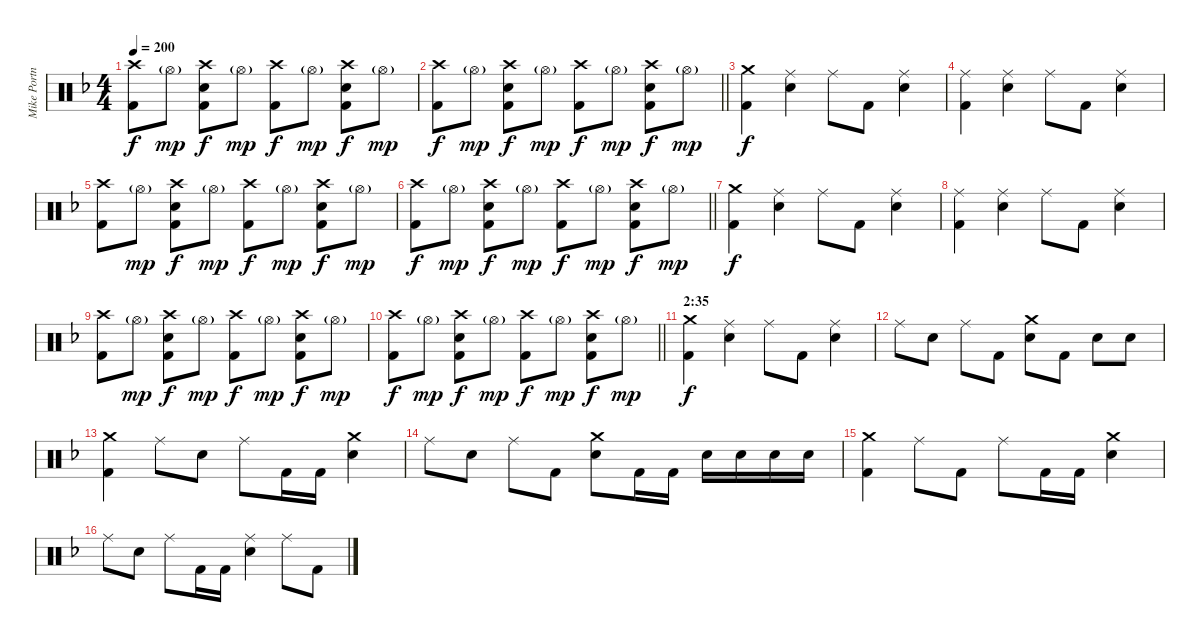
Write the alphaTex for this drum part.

\track ("Mike Portnoy (Drums)" "Mike Portn") {instrument percussion}
\staff {score}
\articulation defaults
\ts (4 4)
\tempo 200
\clef neutral
\ks f
("Crash high (hit)" "Kick (hit) 2").8{dy f} "Hi-Hat (open)"{g}.8{dy mp} ("Crash high (hit)" "Electric Snare (hit)" "Kick (hit) 2").8{dy f} "Hi-Hat (open)"{g}.8{dy mp} ("Crash high (hit)" "Kick (hit) 2").8{dy f} "Hi-Hat (open)"{g}.8{dy mp} ("Crash high (hit)" "Electric Snare (hit)" "Kick (hit) 2").8{dy f} "Hi-Hat (open)"{g}.8{dy mp} |
\barLineRight lightlight
("Crash high (hit)" "Kick (hit) 2").8{dy f} "Hi-Hat (open)"{g}.8{dy mp} ("Crash high (hit)" "Electric Snare (hit)" "Kick (hit) 2").8{dy f} "Hi-Hat (open)"{g}.8{dy mp} ("Crash high (hit)" "Kick (hit) 2").8{dy f} "Hi-Hat (open)"{g}.8{dy mp} ("Crash high (hit)" "Electric Snare (hit)" "Kick (hit) 2").8{dy f} "Hi-Hat (open)"{g}.8{dy mp} |
\section ("" "")
("Crash medium (hit)" "Kick (hit) 2").4{dy f} ("Ride (middle)" "Electric Snare (hit)").4 "Ride (middle)".8 "Kick (hit) 2".8 ("Ride (middle)" "Electric Snare (hit)").4 |
("Ride (middle)" "Kick (hit) 2").4 ("Ride (middle)" "Electric Snare (hit)").4 "Ride (middle)".8 "Kick (hit) 2".8 ("Ride (middle)" "Electric Snare (hit)").4 |
("Crash high (hit)" "Kick (hit) 2").8 "Hi-Hat (open)"{g}.8{dy mp} ("Crash high (hit)" "Electric Snare (hit)" "Kick (hit) 2").8{dy f} "Hi-Hat (open)"{g}.8{dy mp} ("Crash high (hit)" "Kick (hit) 2").8{dy f} "Hi-Hat (open)"{g}.8{dy mp} ("Crash high (hit)" "Electric Snare (hit)" "Kick (hit) 2").8{dy f} "Hi-Hat (open)"{g}.8{dy mp} |
\barLineRight lightlight
("Crash high (hit)" "Kick (hit) 2").8{dy f} "Hi-Hat (open)"{g}.8{dy mp} ("Crash high (hit)" "Electric Snare (hit)" "Kick (hit) 2").8{dy f} "Hi-Hat (open)"{g}.8{dy mp} ("Crash high (hit)" "Kick (hit) 2").8{dy f} "Hi-Hat (open)"{g}.8{dy mp} ("Crash high (hit)" "Electric Snare (hit)" "Kick (hit) 2").8{dy f} "Hi-Hat (open)"{g}.8{dy mp} |
("Crash medium (hit)" "Kick (hit) 2").4{dy f} ("Ride (middle)" "Electric Snare (hit)").4 "Ride (middle)".8 "Kick (hit) 2".8 ("Ride (middle)" "Electric Snare (hit)").4 |
("Ride (middle)" "Kick (hit) 2").4 ("Ride (middle)" "Electric Snare (hit)").4 "Ride (middle)".8 "Kick (hit) 2".8 ("Ride (middle)" "Electric Snare (hit)").4 |
("Crash high (hit)" "Kick (hit) 2").8 "Hi-Hat (open)"{g}.8{dy mp} ("Crash high (hit)" "Electric Snare (hit)" "Kick (hit) 2").8{dy f} "Hi-Hat (open)"{g}.8{dy mp} ("Crash high (hit)" "Kick (hit) 2").8{dy f} "Hi-Hat (open)"{g}.8{dy mp} ("Crash high (hit)" "Electric Snare (hit)" "Kick (hit) 2").8{dy f} "Hi-Hat (open)"{g}.8{dy mp} |
\barLineRight lightlight
("Crash high (hit)" "Kick (hit) 2").8{dy f} "Hi-Hat (open)"{g}.8{dy mp} ("Crash high (hit)" "Electric Snare (hit)" "Kick (hit) 2").8{dy f} "Hi-Hat (open)"{g}.8{dy mp} ("Crash high (hit)" "Kick (hit) 2").8{dy f} "Hi-Hat (open)"{g}.8{dy mp} ("Crash high (hit)" "Electric Snare (hit)" "Kick (hit) 2").8{dy f} "Hi-Hat (open)"{g}.8{dy mp} |
\section ("" "2:35")
("Crash medium (hit)" "Kick (hit) 2").4{dy f} ("Ride (middle)" "Electric Snare (hit)").4 "Ride (middle)".8 "Kick (hit) 2".8 ("Ride (middle)" "Electric Snare (hit)").4 |
"Ride (middle)".8 "Electric Snare (hit)".8 "Ride (middle)".8 "Kick (hit) 2".8 ("Crash medium (hit)" "Electric Snare (hit)").8 "Kick (hit) 2".8 "Electric Snare (hit)".8 "Electric Snare (hit)".8 |
("Crash medium (hit)" "Kick (hit) 2").4 "Ride (middle)".8 "Electric Snare (hit)".8 "Ride (middle)".8 "Kick (hit) 2".16 "Kick (hit) 2".16 ("Crash medium (hit)" "Electric Snare (hit)").4 |
"Ride (middle)".8 "Electric Snare (hit)".8 "Ride (middle)".8 "Kick (hit) 2".8 ("Crash medium (hit)" "Electric Snare (hit)").8 "Kick (hit) 2".16 "Kick (hit) 2".16 "Electric Snare (hit)".16 "Electric Snare (hit)".16 "Electric Snare (hit)".16 "Electric Snare (hit)".16 |
("Crash medium (hit)" "Kick (hit) 2").4 "Ride (middle)".8 "Kick (hit) 2".8 "Ride (middle)".8 "Kick (hit) 2".16 "Kick (hit) 2".16 ("Crash medium (hit)" "Electric Snare (hit)").4 |
"Ride (middle)".8 "Electric Snare (hit)".8 "Ride (middle)".8 "Kick (hit) 2".16 "Kick (hit) 2".16 ("Ride (middle)" "Electric Snare (hit)").4 "Ride (middle)".8 "Kick (hit) 2".8
